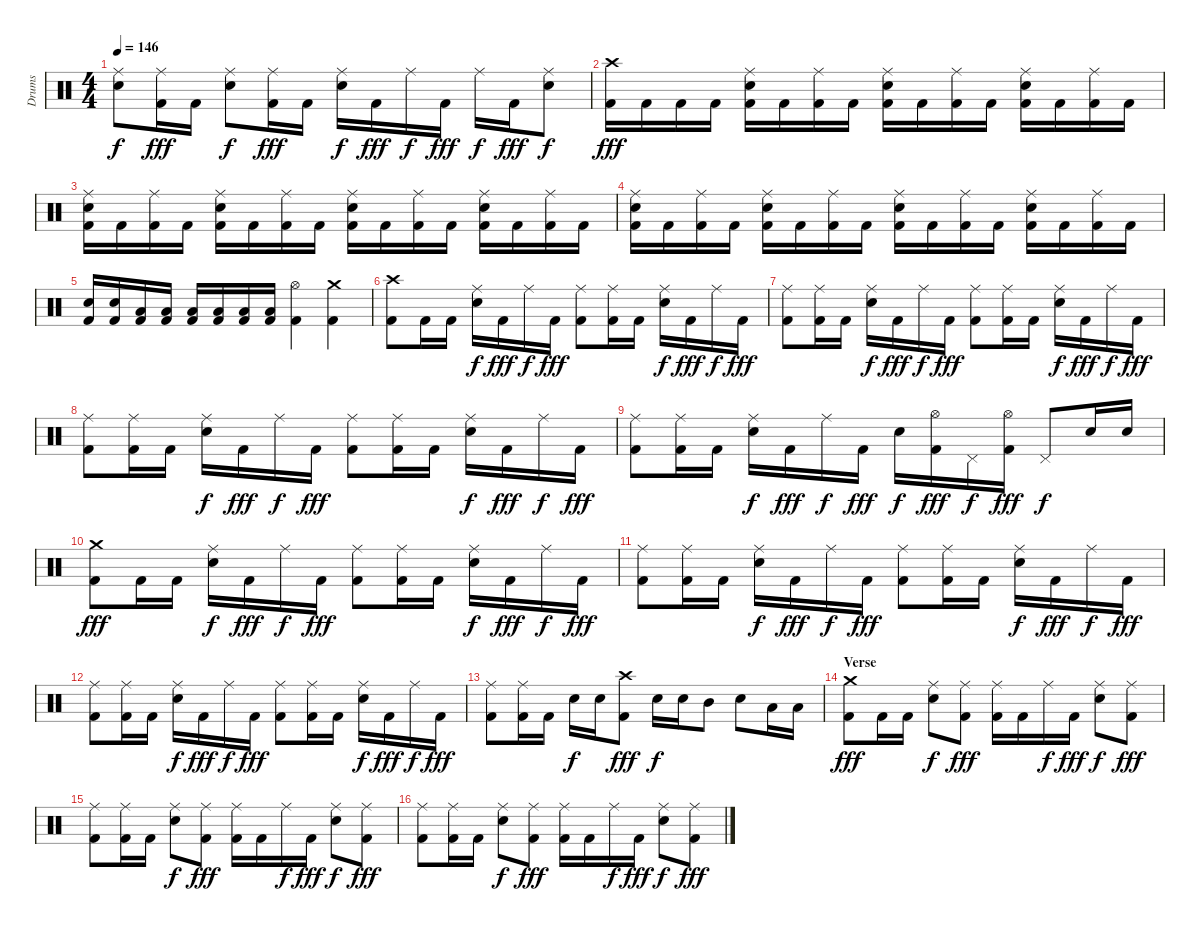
\track ("Drums" "Drums") {instrument percussion}
\staff {score}
\articulation defaults
\ts (4 4)
\tempo 146
\clef neutral
\ks c
("Ride (middle)" "Snare (hit) 2").8{dy f} ("Ride (middle)" "Kick (hit) 2").16{dy fff} "Kick (hit) 2".16 ("Ride (middle)" "Snare (hit) 2").8{dy f} ("Ride (middle)" "Kick (hit) 2").16{dy fff} "Kick (hit) 2".16 ("Ride (middle)" "Snare (hit) 2").16{dy f} "Kick (hit) 2".16{dy fff} "Ride (middle)".16{dy f} "Kick (hit) 2".16{dy fff} "Ride (middle)".16{dy f} "Kick (hit) 2".16{dy fff} ("Ride (middle)" "Snare (hit) 2").8{dy f} |
("Crash high (hit)" "Kick (hit) 2").16{dy fff} "Kick (hit) 2".16 "Kick (hit) 2".16 "Kick (hit) 2".16 ("Ride (middle)" "Snare (hit) 2" "Kick (hit) 2").16 "Kick (hit) 2".16 ("Ride (middle)" "Kick (hit) 2").16 "Kick (hit) 2".16 ("Ride (middle)" "Snare (hit) 2" "Kick (hit) 2").16 "Kick (hit) 2".16 ("Ride (middle)" "Kick (hit) 2").16 "Kick (hit) 2".16 ("Ride (middle)" "Snare (hit) 2" "Kick (hit) 2").16 "Kick (hit) 2".16 ("Ride (middle)" "Kick (hit) 2").16 "Kick (hit) 2".16 |
("Ride (middle)" "Snare (hit) 2" "Kick (hit) 2").16 "Kick (hit) 2".16 ("Ride (middle)" "Kick (hit) 2").16 "Kick (hit) 2".16 ("Ride (middle)" "Snare (hit) 2" "Kick (hit) 2").16 "Kick (hit) 2".16 ("Ride (middle)" "Kick (hit) 2").16 "Kick (hit) 2".16 ("Ride (middle)" "Snare (hit) 2" "Kick (hit) 2").16 "Kick (hit) 2".16 ("Ride (middle)" "Kick (hit) 2").16 "Kick (hit) 2".16 ("Ride (middle)" "Snare (hit) 2" "Kick (hit) 2").16 "Kick (hit) 2".16 ("Ride (middle)" "Kick (hit) 2").16 "Kick (hit) 2".16 |
("Ride (middle)" "Snare (hit) 2" "Kick (hit) 2").16 "Kick (hit) 2".16 ("Ride (middle)" "Kick (hit) 2").16 "Kick (hit) 2".16 ("Ride (middle)" "Snare (hit) 2" "Kick (hit) 2").16 "Kick (hit) 2".16 ("Ride (middle)" "Kick (hit) 2").16 "Kick (hit) 2".16 ("Ride (middle)" "Snare (hit) 2" "Kick (hit) 2").16 "Kick (hit) 2".16 ("Ride (middle)" "Kick (hit) 2").16 "Kick (hit) 2".16 ("Ride (middle)" "Snare (hit) 2" "Kick (hit) 2").16 "Kick (hit) 2".16 ("Ride (middle)" "Kick (hit) 2").16 "Kick (hit) 2".16 |
("Snare (hit) 2" "Kick (hit) 2").16 ("Snare (hit) 2" "Kick (hit) 2").16 ("Low Floor Tom (hit)" "Kick (hit) 2").16 ("Low Floor Tom (hit)" "Kick (hit) 2").16 ("Low Floor Tom (hit)" "Kick (hit) 2").16 ("Low Floor Tom (hit)" "Kick (hit) 2").16 ("Low Floor Tom (hit)" "Kick (hit) 2").16 ("Low Floor Tom (hit)" "Kick (hit) 2").16 ("Hi-Hat (open)" "Kick (hit) 2").4 ("Crash medium (hit)" "Kick (hit) 2").4 |
("Crash high (hit)" "Kick (hit) 2").8 "Kick (hit) 2".16 "Kick (hit) 2".16 ("Ride (middle)" "Snare (hit) 2").16{dy f} "Kick (hit) 2".16{dy fff} "Ride (middle)".16{dy f} "Kick (hit) 2".16{dy fff} ("Ride (middle)" "Kick (hit) 2").8 ("Ride (middle)" "Kick (hit) 2").16 "Kick (hit) 2".16 ("Ride (middle)" "Snare (hit) 2").16{dy f} "Kick (hit) 2".16{dy fff} "Ride (middle)".16{dy f} "Kick (hit) 2".16{dy fff} |
("Ride (middle)" "Kick (hit) 2").8 ("Ride (middle)" "Kick (hit) 2").16 "Kick (hit) 2".16 ("Ride (middle)" "Snare (hit) 2").16{dy f} "Kick (hit) 2".16{dy fff} "Ride (middle)".16{dy f} "Kick (hit) 2".16{dy fff} ("Ride (middle)" "Kick (hit) 2").8 ("Ride (middle)" "Kick (hit) 2").16 "Kick (hit) 2".16 ("Ride (middle)" "Snare (hit) 2").16{dy f} "Kick (hit) 2".16{dy fff} "Ride (middle)".16{dy f} "Kick (hit) 2".16{dy fff} |
("Ride (middle)" "Kick (hit) 2").8 ("Ride (middle)" "Kick (hit) 2").16 "Kick (hit) 2".16 ("Ride (middle)" "Snare (hit) 2").16{dy f} "Kick (hit) 2".16{dy fff} "Ride (middle)".16{dy f} "Kick (hit) 2".16{dy fff} ("Ride (middle)" "Kick (hit) 2").8 ("Ride (middle)" "Kick (hit) 2").16 "Kick (hit) 2".16 ("Ride (middle)" "Snare (hit) 2").16{dy f} "Kick (hit) 2".16{dy fff} "Ride (middle)".16{dy f} "Kick (hit) 2".16{dy fff} |
("Ride (middle)" "Kick (hit) 2").8 ("Ride (middle)" "Kick (hit) 2").16 "Kick (hit) 2".16 ("Ride (middle)" "Snare (hit) 2").16{dy f} "Kick (hit) 2".16{dy fff} "Ride (middle)".16{dy f} "Kick (hit) 2".16{dy fff} "Snare (hit) 2".16{dy f} ("Hi-Hat (open)" "Kick (hit) 2").16{dy fff} "Pedal Hi-Hat (hit)".16{dy f} ("Hi-Hat (open)" "Kick (hit) 2").16{dy fff} "Pedal Hi-Hat (hit)".8{dy f} "Snare (hit) 2".16 "Snare (hit) 2".16 |
("Crash medium (hit)" "Kick (hit) 2").8{dy fff} "Kick (hit) 2".16 "Kick (hit) 2".16 ("Ride (middle)" "Snare (hit) 2").16{dy f} "Kick (hit) 2".16{dy fff} "Ride (middle)".16{dy f} "Kick (hit) 2".16{dy fff} ("Ride (middle)" "Kick (hit) 2").8 ("Ride (middle)" "Kick (hit) 2").16 "Kick (hit) 2".16 ("Ride (middle)" "Snare (hit) 2").16{dy f} "Kick (hit) 2".16{dy fff} "Ride (middle)".16{dy f} "Kick (hit) 2".16{dy fff} |
("Ride (middle)" "Kick (hit) 2").8 ("Ride (middle)" "Kick (hit) 2").16 "Kick (hit) 2".16 ("Ride (middle)" "Snare (hit) 2").16{dy f} "Kick (hit) 2".16{dy fff} "Ride (middle)".16{dy f} "Kick (hit) 2".16{dy fff} ("Ride (middle)" "Kick (hit) 2").8 ("Ride (middle)" "Kick (hit) 2").16 "Kick (hit) 2".16 ("Ride (middle)" "Snare (hit) 2").16{dy f} "Kick (hit) 2".16{dy fff} "Ride (middle)".16{dy f} "Kick (hit) 2".16{dy fff} |
("Ride (middle)" "Kick (hit) 2").8 ("Ride (middle)" "Kick (hit) 2").16 "Kick (hit) 2".16 ("Ride (middle)" "Snare (hit) 2").16{dy f} "Kick (hit) 2".16{dy fff} "Ride (middle)".16{dy f} "Kick (hit) 2".16{dy fff} ("Ride (middle)" "Kick (hit) 2").8 ("Ride (middle)" "Kick (hit) 2").16 "Kick (hit) 2".16 ("Ride (middle)" "Snare (hit) 2").16{dy f} "Kick (hit) 2".16{dy fff} "Ride (middle)".16{dy f} "Kick (hit) 2".16{dy fff} |
("Ride (middle)" "Kick (hit) 2").8 ("Ride (middle)" "Kick (hit) 2").16 "Kick (hit) 2".16 "Snare (hit) 2".16{dy f} "Snare (hit) 2".16 ("Crash high (hit)" "Kick (hit) 2").8{dy fff} "Snare (hit) 2".16{dy f} "Snare (hit) 2".16 "Mid Tom (hit)".8 "Snare (hit) 2".8 "Low Tom (hit)".16 "Low Tom (hit)".16 |
\section ("" "Verse")
("Crash medium (hit)" "Kick (hit) 2").8{dy fff} "Kick (hit) 2".16 "Kick (hit) 2".16 ("Ride (middle)" "Snare (hit) 2").8{dy f} ("Ride (middle)" "Kick (hit) 2").8{dy fff} ("Ride (middle)" "Kick (hit) 2").16 "Kick (hit) 2".16 "Ride (middle)".16{dy f} "Kick (hit) 2".16{dy fff} ("Ride (middle)" "Snare (hit) 2").8{dy f} ("Ride (middle)" "Kick (hit) 2").8{dy fff} |
("Ride (middle)" "Kick (hit) 2").8 ("Ride (middle)" "Kick (hit) 2").16 "Kick (hit) 2".16 ("Ride (middle)" "Snare (hit) 2").8{dy f} ("Ride (middle)" "Kick (hit) 2").8{dy fff} ("Ride (middle)" "Kick (hit) 2").16 "Kick (hit) 2".16 "Ride (middle)".16{dy f} "Kick (hit) 2".16{dy fff} ("Ride (middle)" "Snare (hit) 2").8{dy f} ("Ride (middle)" "Kick (hit) 2").8{dy fff} |
("Ride (middle)" "Kick (hit) 2").8 ("Ride (middle)" "Kick (hit) 2").16 "Kick (hit) 2".16 ("Ride (middle)" "Snare (hit) 2").8{dy f} ("Ride (middle)" "Kick (hit) 2").8{dy fff} ("Ride (middle)" "Kick (hit) 2").16 "Kick (hit) 2".16 "Ride (middle)".16{dy f} "Kick (hit) 2".16{dy fff} ("Ride (middle)" "Snare (hit) 2").8{dy f} ("Ride (middle)" "Kick (hit) 2").8{dy fff}
